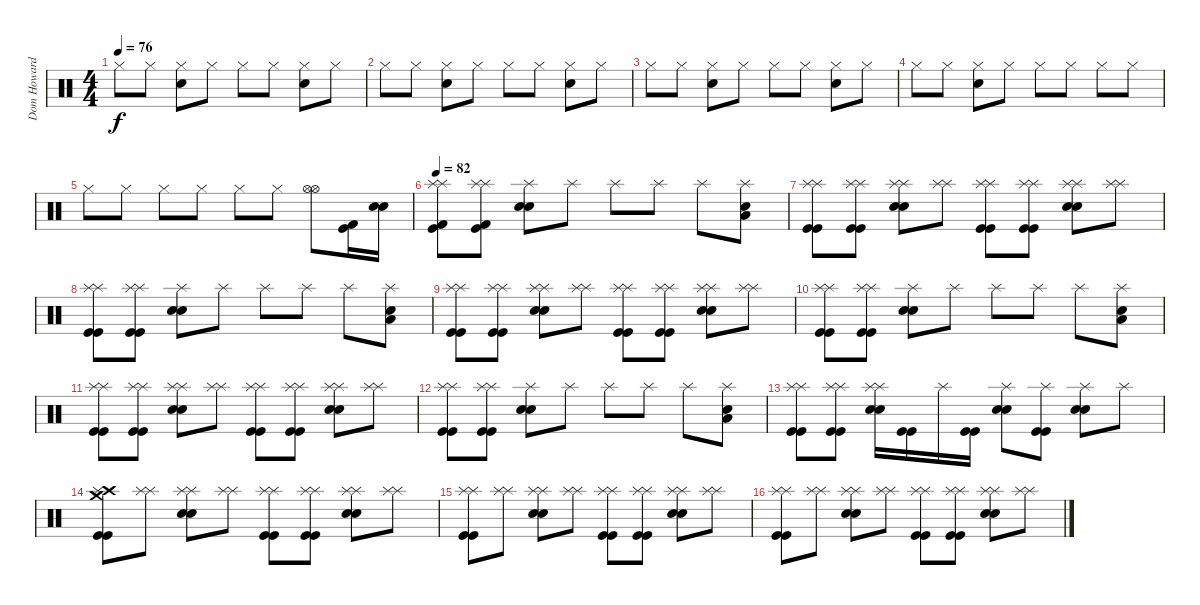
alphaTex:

\track ("Dom Howard" "Dom Howard") {instrument percussion}
\staff {score}
\articulation defaults
\ts (4 4)
\tempo 76
\clef neutral
\ks c "Hi-Hat (closed)".8{dy f} "Hi-Hat (closed)".8
("Hi-Hat (closed)" "Electric Snare (hit)").8 "Hi-Hat (closed)".8 "Hi-Hat (closed)".8 "Hi-Hat (closed)".8 ("Hi-Hat (closed)" "Electric Snare (hit)").8 "Hi-Hat (closed)".8 |
"Hi-Hat (closed)".8 "Hi-Hat (closed)".8 ("Hi-Hat (closed)" "Electric Snare (hit)").8 "Hi-Hat (closed)".8 "Hi-Hat (closed)".8 "Hi-Hat (closed)".8 ("Hi-Hat (closed)" "Electric Snare (hit)").8 "Hi-Hat (closed)".8 |
"Hi-Hat (closed)".8 "Hi-Hat (closed)".8 ("Hi-Hat (closed)" "Electric Snare (hit)").8 "Hi-Hat (closed)".8 "Hi-Hat (closed)".8 "Hi-Hat (closed)".8 ("Hi-Hat (closed)" "Electric Snare (hit)").8 "Hi-Hat (closed)".8 |
"Hi-Hat (closed)".8 "Hi-Hat (closed)".8 ("Hi-Hat (closed)" "Electric Snare (hit)").8 "Hi-Hat (closed)".8 "Hi-Hat (closed)".8 "Hi-Hat (closed)".8 "Hi-Hat (closed)".8 "Hi-Hat (closed)".8 |
"Hi-Hat (closed)".8 "Hi-Hat (closed)".8 "Hi-Hat (closed)".8 "Hi-Hat (closed)".8 "Hi-Hat (closed)".8 "Hi-Hat (closed)".8 ("Hi-Hat (open)" "Hi-Hat (open)").8{volume 14} ("Kick (hit)" "Kick (hit) 2").16 ("Electric Snare (hit)" "Electric Snare (hit)").16 |
\tempo 82
("Splash (hit)" "Splash (hit)" "Kick (hit)" "Kick (hit) 2").8 ("Splash (hit)" "Splash (hit)" "Kick (hit)" "Kick (hit) 2").8 ("Splash (hit)" "Electric Snare (hit)" "Electric Snare (hit)").8 "Splash (hit)".8 "Splash (hit)".8 "Splash (hit)".8 "Splash (hit)".8 ("Splash (hit)" "Low Floor Tom (hit)" "Electric Snare (hit)").8 |
("Splash (hit)" "Splash (hit)" "Kick (hit)" "Kick (hit)").8 ("Splash (hit)" "Splash (hit)" "Kick (hit)" "Kick (hit)").8 ("Splash (hit)" "Splash (hit)" "Electric Snare (hit)" "Electric Snare (hit)").8 ("Splash (hit)" "Splash (hit)").8 ("Splash (hit)" "Splash (hit)" "Kick (hit)" "Kick (hit)").8 ("Splash (hit)" "Splash (hit)" "Kick (hit)" "Kick (hit)").8 ("Splash (hit)" "Splash (hit)" "Electric Snare (hit)" "Electric Snare (hit)").8 ("Splash (hit)" "Splash (hit)").8 |
("Splash (hit)" "Splash (hit)" "Kick (hit)" "Kick (hit)").8 ("Splash (hit)" "Splash (hit)" "Kick (hit)" "Kick (hit)").8 ("Splash (hit)" "Electric Snare (hit)" "Electric Snare (hit)").8 "Splash (hit)".8 "Splash (hit)".8 "Splash (hit)".8 "Splash (hit)".8 ("Splash (hit)" "Low Floor Tom (hit)" "Electric Snare (hit)").8 |
("Splash (hit)" "Splash (hit)" "Kick (hit)" "Kick (hit)").8 ("Splash (hit)" "Splash (hit)" "Kick (hit)" "Kick (hit)").8 ("Splash (hit)" "Splash (hit)" "Electric Snare (hit)" "Electric Snare (hit)").8 ("Splash (hit)" "Splash (hit)").8 ("Splash (hit)" "Splash (hit)" "Kick (hit)" "Kick (hit)").8 ("Splash (hit)" "Splash (hit)" "Kick (hit)" "Kick (hit)").8 ("Splash (hit)" "Splash (hit)" "Electric Snare (hit)" "Electric Snare (hit)").8 ("Splash (hit)" "Splash (hit)").8 |
("Splash (hit)" "Splash (hit)" "Kick (hit)" "Kick (hit)").8 ("Splash (hit)" "Splash (hit)" "Kick (hit)" "Kick (hit)").8 ("Splash (hit)" "Electric Snare (hit)" "Electric Snare (hit)").8 "Splash (hit)".8 "Splash (hit)".8 "Splash (hit)".8 "Splash (hit)".8 ("Splash (hit)" "Low Floor Tom (hit)" "Electric Snare (hit)").8 |
("Splash (hit)" "Splash (hit)" "Kick (hit)" "Kick (hit)").8 ("Splash (hit)" "Splash (hit)" "Kick (hit)" "Kick (hit)").8 ("Splash (hit)" "Splash (hit)" "Electric Snare (hit)" "Electric Snare (hit)").8 ("Splash (hit)" "Splash (hit)").8 ("Splash (hit)" "Splash (hit)" "Kick (hit)" "Kick (hit)").8 ("Splash (hit)" "Splash (hit)" "Kick (hit)" "Kick (hit)").8 ("Splash (hit)" "Splash (hit)" "Electric Snare (hit)" "Electric Snare (hit)").8 ("Splash (hit)" "Splash (hit)").8 |
("Splash (hit)" "Splash (hit)" "Kick (hit)" "Kick (hit)").8 ("Splash (hit)" "Splash (hit)" "Kick (hit)" "Kick (hit)").8 ("Splash (hit)" "Electric Snare (hit)" "Electric Snare (hit)").8 "Splash (hit)".8 "Splash (hit)".8 "Splash (hit)".8 "Splash (hit)".8 ("Splash (hit)" "Low Floor Tom (hit)" "Electric Snare (hit)").8 |
("Splash (hit)" "Splash (hit)" "Kick (hit)" "Kick (hit)").8 ("Splash (hit)" "Splash (hit)" "Kick (hit)" "Kick (hit)").8 ("Splash (hit)" "Splash (hit)" "Electric Snare (hit)" "Electric Snare (hit)").16 ("Kick (hit)" "Kick (hit)").16 "Splash (hit)".16 ("Kick (hit)" "Kick (hit)").16 ("Splash (hit)" "Electric Snare (hit)" "Electric Snare (hit)").8 ("Splash (hit)" "Kick (hit)" "Kick (hit)").8 ("Splash (hit)" "Electric Snare (hit)" "Electric Snare (hit)").8 "Splash (hit)".8 |
("Crash high (hit)" "Crash medium (hit)" "Splash (hit)" "Kick (hit)" "Kick (hit)").8 ("Splash (hit)" "Splash (hit)").8 ("Splash (hit)" "Splash (hit)" "Electric Snare (hit)" "Electric Snare (hit)").8 ("Splash (hit)" "Splash (hit)").8 ("Splash (hit)" "Splash (hit)" "Kick (hit)" "Kick (hit)").8 ("Splash (hit)" "Splash (hit)" "Kick (hit)" "Kick (hit)").8 ("Splash (hit)" "Splash (hit)" "Electric Snare (hit)" "Electric Snare (hit)").8 ("Splash (hit)" "Splash (hit)").8 |
("Splash (hit)" "Splash (hit)" "Kick (hit)" "Kick (hit)").8 ("Splash (hit)" "Splash (hit)").8 ("Splash (hit)" "Splash (hit)" "Electric Snare (hit)" "Electric Snare (hit)").8 ("Splash (hit)" "Splash (hit)").8 ("Splash (hit)" "Splash (hit)" "Kick (hit)" "Kick (hit)").8 ("Splash (hit)" "Splash (hit)" "Kick (hit)" "Kick (hit)").8 ("Splash (hit)" "Splash (hit)" "Electric Snare (hit)" "Electric Snare (hit)").8 ("Splash (hit)" "Splash (hit)").8 |
("Splash (hit)" "Splash (hit)" "Kick (hit)" "Kick (hit)").8 ("Splash (hit)" "Splash (hit)").8 ("Splash (hit)" "Splash (hit)" "Electric Snare (hit)" "Electric Snare (hit)").8 ("Splash (hit)" "Splash (hit)").8 ("Splash (hit)" "Splash (hit)" "Kick (hit)" "Kick (hit)").8 ("Splash (hit)" "Splash (hit)" "Kick (hit)" "Kick (hit)").8 ("Splash (hit)" "Splash (hit)" "Electric Snare (hit)" "Electric Snare (hit)").8 ("Splash (hit)" "Splash (hit)").8
